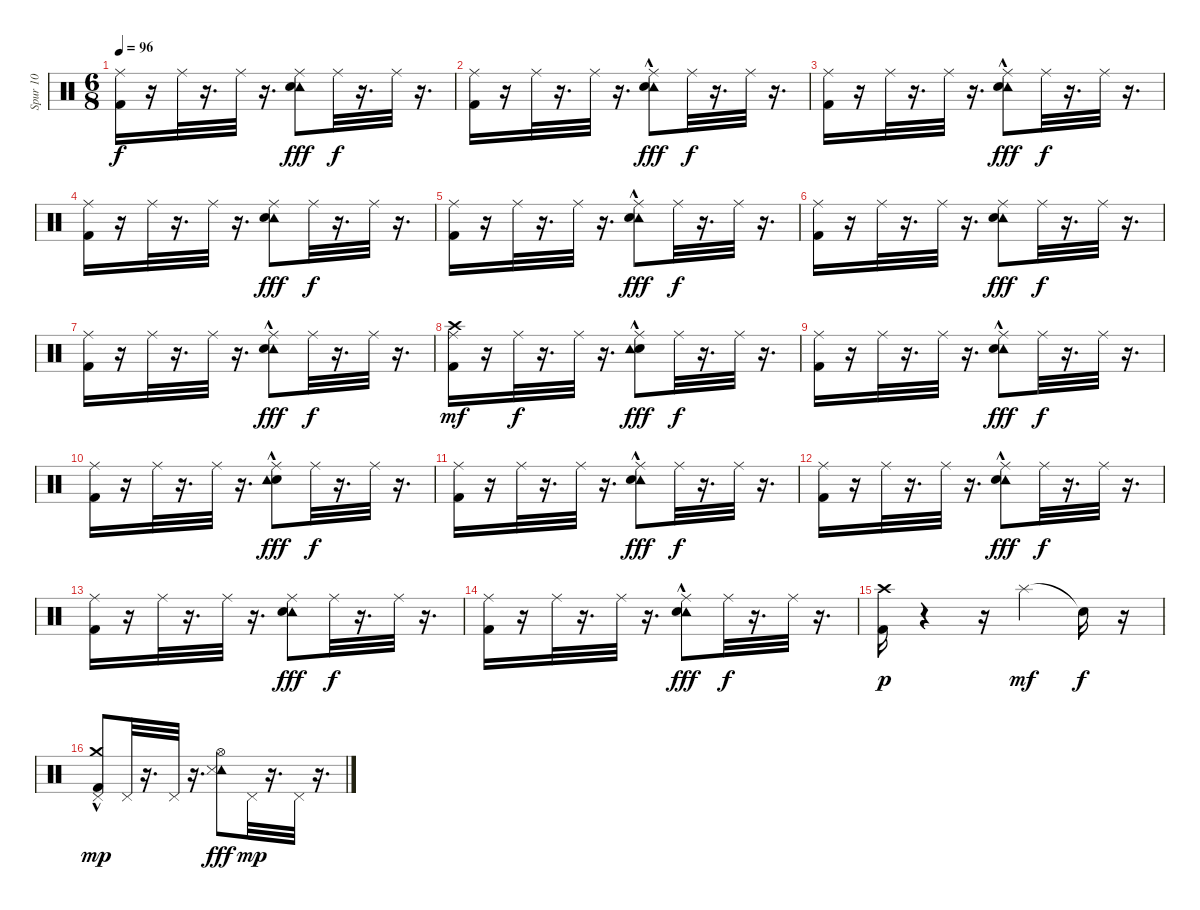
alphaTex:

\track ("Spur 10" "Spur 10") {instrument percussion}
\staff {score}
\articulation defaults
\ts (6 8)
\tempo 96
\clef neutral
\ks c
("Ride (middle)" "Kick (hit) 2").16{dy f} r.16 "Ride (middle)".32 r.16{d} "Ride (middle)".32 r.16{d} ("Tambourine (hit)" "Electric Snare (hit)" "Ride (middle)").8{dy fff} "Ride (middle)".32{dy f} r.16{d} "Ride (middle)".32 r.16{d} |
("Ride (middle)" "Kick (hit) 2").16 r.16 "Ride (middle)".32 r.16{d} "Ride (middle)".32 r.16{d} ("Tambourine (hit)"{hac} "Electric Snare (hit)" "Ride (middle)").8{dy fff} "Ride (middle)".32{dy f} r.16{d} "Ride (middle)".32 r.16{d} |
("Ride (middle)" "Kick (hit) 2").16 r.16 "Ride (middle)".32 r.16{d} "Ride (middle)".32 r.16{d} ("Tambourine (hit)"{hac} "Electric Snare (hit)" "Ride (middle)").8{dy fff} "Ride (middle)".32{dy f} r.16{d} "Ride (middle)".32 r.16{d} |
("Ride (middle)" "Kick (hit) 2").16 r.16 "Ride (middle)".32 r.16{d} "Ride (middle)".32 r.16{d} ("Tambourine (hit)" "Electric Snare (hit)" "Ride (middle)").8{dy fff} "Ride (middle)".32{dy f} r.16{d} "Ride (middle)".32 r.16{d} |
("Ride (middle)" "Kick (hit) 2").16 r.16 "Ride (middle)".32 r.16{d} "Ride (middle)".32 r.16{d} ("Tambourine (hit)"{hac} "Electric Snare (hit)" "Ride (middle)").8{dy fff} "Ride (middle)".32{dy f} r.16{d} "Ride (middle)".32 r.16{d} |
("Ride (middle)" "Kick (hit) 2").16 r.16 "Ride (middle)".32 r.16{d} "Ride (middle)".32 r.16{d} ("Tambourine (hit)" "Electric Snare (hit)" "Ride (middle)").8{dy fff} "Ride (middle)".32{dy f} r.16{d} "Ride (middle)".32 r.16{d} |
("Ride (middle)" "Kick (hit) 2").16 r.16 "Ride (middle)".32 r.16{d} "Ride (middle)".32 r.16{d} ("Tambourine (hit)"{hac} "Electric Snare (hit)" "Ride (middle)").8{dy fff} "Ride (middle)".32{dy f} r.16{d} "Ride (middle)".32 r.16{d} |
("Ride (middle)" "Kick (hit) 2" "Crash high (hit)").16{dy mf} r.16 "Ride (middle)".32{dy f} r.16{d} "Ride (middle)".32 r.16{d} ("Electric Snare (hit)" "Ride (middle)" "Tambourine (hit)"{hac}).8{dy fff} "Ride (middle)".32{dy f} r.16{d} "Ride (middle)".32 r.16{d} |
("Ride (middle)" "Kick (hit) 2").16 r.16 "Ride (middle)".32 r.16{d} "Ride (middle)".32 r.16{d} ("Tambourine (hit)"{hac} "Electric Snare (hit)" "Ride (middle)").8{dy fff} "Ride (middle)".32{dy f} r.16{d} "Ride (middle)".32 r.16{d} |
("Ride (middle)" "Kick (hit) 2").16 r.16 "Ride (middle)".32 r.16{d} "Ride (middle)".32 r.16{d} ("Electric Snare (hit)" "Ride (middle)" "Tambourine (hit)"{hac}).8{dy fff} "Ride (middle)".32{dy f} r.16{d} "Ride (middle)".32 r.16{d} |
("Ride (middle)" "Kick (hit) 2").16 r.16 "Ride (middle)".32 r.16{d} "Ride (middle)".32 r.16{d} ("Tambourine (hit)"{hac} "Electric Snare (hit)" "Ride (middle)").8{dy fff} "Ride (middle)".32{dy f} r.16{d} "Ride (middle)".32 r.16{d} |
("Ride (middle)" "Kick (hit) 2").16 r.16 "Ride (middle)".32 r.16{d} "Ride (middle)".32 r.16{d} ("Tambourine (hit)"{hac} "Electric Snare (hit)" "Ride (middle)").8{dy fff} "Ride (middle)".32{dy f} r.16{d} "Ride (middle)".32 r.16{d} |
("Ride (middle)" "Kick (hit) 2").16 r.16 "Ride (middle)".32 r.16{d} "Ride (middle)".32 r.16{d} ("Tambourine (hit)" "Electric Snare (hit)" "Ride (middle)").8{dy fff} "Ride (middle)".32{dy f} r.16{d} "Ride (middle)".32 r.16{d} |
("Ride (middle)" "Kick (hit) 2").16 r.16 "Ride (middle)".32 r.16{d} "Ride (middle)".32 r.16{d} ("Tambourine (hit)"{hac} "Electric Snare (hit)" "Ride (middle)").8{dy fff} "Ride (middle)".32{dy f} r.16{d} "Ride (middle)".32 r.16{d} |
("Crash high (hit)" "Kick (hit) 2").16{dy p} r.4 r.16 "Splash (hit)".4{dy mf} "Snare (hit)"{t}.16{dy f} r.16 |
("Crash medium (hit)"{hac} "Pedal Hi-Hat (hit)" "Kick (hit) 2").8{dy mp} "Pedal Hi-Hat (hit)".32 r.16{d} "Pedal Hi-Hat (hit)".32 r.16{d} ("Tambourine (hit)" "Snare (side stick) 3" "Hi-Hat (open)").8{dy fff} "Pedal Hi-Hat (hit)".32{dy mp} r.16{d} "Pedal Hi-Hat (hit)".32 r.16{d}
